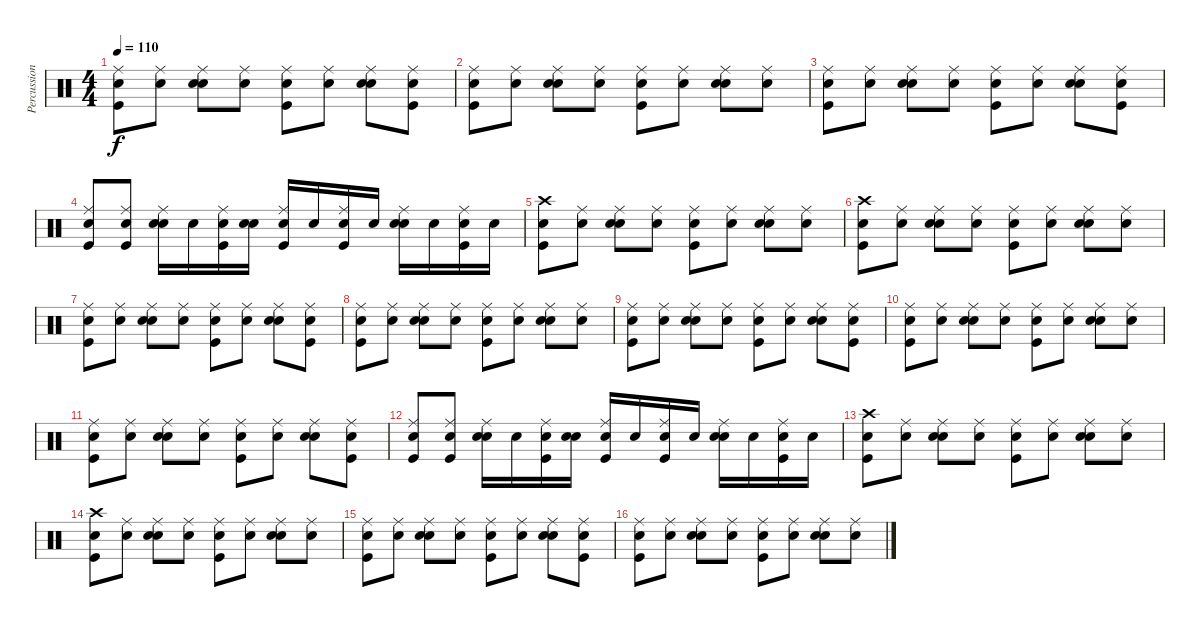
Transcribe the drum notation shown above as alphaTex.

\track ("Percussion" "Percussion") {instrument percussion}
\staff {score}
\articulation defaults
\ts (4 4)
\tempo 110
\clef neutral
\ks c
("Snare (hit)" "Ride (middle)" "Kick (hit)").8{dy f} ("Snare (hit)" "Ride (middle)").8 ("Snare (hit)" "Ride (middle)" "Snare (hit) 2").8 ("Snare (hit)" "Ride (middle)").8 ("Snare (hit)" "Ride (middle)" "Kick (hit)").8 ("Snare (hit)" "Ride (middle)").8 ("Snare (hit)" "Ride (middle)" "Snare (hit) 2").8 ("Snare (hit)" "Ride (middle)" "Kick (hit)").8 |
("Snare (hit)" "Ride (middle)" "Kick (hit)").8 ("Snare (hit)" "Ride (middle)").8 ("Snare (hit)" "Ride (middle)" "Snare (hit) 2").8 ("Snare (hit)" "Ride (middle)").8 ("Snare (hit)" "Ride (middle)" "Kick (hit)").8 ("Snare (hit)" "Ride (middle)").8 ("Snare (hit)" "Ride (middle)" "Snare (hit) 2").8 ("Snare (hit)" "Ride (middle)").8 |
("Snare (hit)" "Ride (middle)" "Kick (hit)").8 ("Snare (hit)" "Ride (middle)").8 ("Snare (hit)" "Ride (middle)" "Snare (hit) 2").8 ("Snare (hit)" "Ride (middle)").8 ("Snare (hit)" "Ride (middle)" "Kick (hit)").8 ("Snare (hit)" "Ride (middle)").8 ("Snare (hit)" "Ride (middle)" "Snare (hit) 2").8 ("Snare (hit)" "Ride (middle)" "Kick (hit)").8 |
("Snare (hit)" "Ride (middle)" "Kick (hit)").8 ("Snare (hit)" "Ride (middle)" "Kick (hit)").8 ("Snare (hit)" "Ride (middle)" "Snare (hit) 2").16 "Snare (hit)".16 ("Snare (hit)" "Ride (middle)" "Kick (hit)").16 ("Snare (hit)" "Snare (hit) 2").16 ("Snare (hit)" "Ride (middle)" "Kick (hit)").16 "Snare (hit)".16 ("Snare (hit)" "Ride (middle)" "Kick (hit)").16 "Snare (hit)".16 ("Snare (hit)" "Ride (middle)" "Snare (hit) 2").16 "Snare (hit)".16 ("Snare (hit)" "Ride (middle)" "Kick (hit)").16 "Snare (hit)".16 |
("Snare (hit)" "Crash high (hit)" "Kick (hit)").8 ("Snare (hit)" "Ride (middle)").8 ("Snare (hit)" "Ride (middle)" "Snare (hit) 2").8 ("Snare (hit)" "Ride (middle)").8 ("Snare (hit)" "Ride (middle)" "Kick (hit)").8 ("Snare (hit)" "Ride (middle)").8 ("Snare (hit)" "Ride (middle)" "Snare (hit) 2").8 ("Snare (hit)" "Ride (middle)").8 |
("Snare (hit)" "Crash high (hit)" "Kick (hit)").8 ("Snare (hit)" "Ride (middle)").8 ("Snare (hit)" "Ride (middle)" "Snare (hit) 2").8 ("Snare (hit)" "Ride (middle)").8 ("Snare (hit)" "Ride (middle)" "Kick (hit)").8 ("Snare (hit)" "Ride (middle)").8 ("Snare (hit)" "Ride (middle)" "Snare (hit) 2").8 ("Snare (hit)" "Ride (middle)").8 |
("Snare (hit)" "Ride (middle)" "Kick (hit)").8 ("Snare (hit)" "Ride (middle)").8 ("Snare (hit)" "Ride (middle)" "Snare (hit) 2").8 ("Snare (hit)" "Ride (middle)").8 ("Snare (hit)" "Ride (middle)" "Kick (hit)").8 ("Snare (hit)" "Ride (middle)").8 ("Snare (hit)" "Ride (middle)" "Snare (hit) 2").8 ("Snare (hit)" "Ride (middle)" "Kick (hit)").8 |
("Snare (hit)" "Ride (middle)" "Kick (hit)").8 ("Snare (hit)" "Ride (middle)").8 ("Snare (hit)" "Ride (middle)" "Snare (hit) 2").8 ("Snare (hit)" "Ride (middle)").8 ("Snare (hit)" "Ride (middle)" "Kick (hit)").8 ("Snare (hit)" "Ride (middle)").8 ("Snare (hit)" "Ride (middle)" "Snare (hit) 2").8 ("Snare (hit)" "Ride (middle)").8 |
("Snare (hit)" "Ride (middle)" "Kick (hit)").8 ("Snare (hit)" "Ride (middle)").8 ("Snare (hit)" "Ride (middle)" "Snare (hit) 2").8 ("Snare (hit)" "Ride (middle)").8 ("Snare (hit)" "Ride (middle)" "Kick (hit)").8 ("Snare (hit)" "Ride (middle)").8 ("Snare (hit)" "Ride (middle)" "Snare (hit) 2").8 ("Snare (hit)" "Ride (middle)" "Kick (hit)").8 |
("Snare (hit)" "Ride (middle)" "Kick (hit)").8 ("Snare (hit)" "Ride (middle)").8 ("Snare (hit)" "Ride (middle)" "Snare (hit) 2").8 ("Snare (hit)" "Ride (middle)").8 ("Snare (hit)" "Ride (middle)" "Kick (hit)").8 ("Snare (hit)" "Ride (middle)").8 ("Snare (hit)" "Ride (middle)" "Snare (hit) 2").8 ("Snare (hit)" "Ride (middle)").8 |
("Snare (hit)" "Ride (middle)" "Kick (hit)").8 ("Snare (hit)" "Ride (middle)").8 ("Snare (hit)" "Ride (middle)" "Snare (hit) 2").8 ("Snare (hit)" "Ride (middle)").8 ("Snare (hit)" "Ride (middle)" "Kick (hit)").8 ("Snare (hit)" "Ride (middle)").8 ("Snare (hit)" "Ride (middle)" "Snare (hit) 2").8 ("Snare (hit)" "Ride (middle)" "Kick (hit)").8 |
("Snare (hit)" "Ride (middle)" "Kick (hit)").8 ("Snare (hit)" "Ride (middle)" "Kick (hit)").8 ("Snare (hit)" "Ride (middle)" "Snare (hit) 2").16 "Snare (hit)".16 ("Snare (hit)" "Ride (middle)" "Kick (hit)").16 ("Snare (hit)" "Snare (hit) 2").16 ("Snare (hit)" "Ride (middle)" "Kick (hit)").16 "Snare (hit)".16 ("Snare (hit)" "Ride (middle)" "Kick (hit)").16 "Snare (hit)".16 ("Snare (hit)" "Ride (middle)" "Snare (hit) 2").16 "Snare (hit)".16 ("Snare (hit)" "Ride (middle)" "Kick (hit)").16 "Snare (hit)".16 |
("Snare (hit)" "Crash high (hit)" "Kick (hit)").8 ("Snare (hit)" "Ride (middle)").8 ("Snare (hit)" "Ride (middle)" "Snare (hit) 2").8 ("Snare (hit)" "Ride (middle)").8 ("Snare (hit)" "Ride (middle)" "Kick (hit)").8 ("Snare (hit)" "Ride (middle)").8 ("Snare (hit)" "Ride (middle)" "Snare (hit) 2").8 ("Snare (hit)" "Ride (middle)").8 |
("Snare (hit)" "Crash high (hit)" "Kick (hit)").8 ("Snare (hit)" "Ride (middle)").8 ("Snare (hit)" "Ride (middle)" "Snare (hit) 2").8 ("Snare (hit)" "Ride (middle)").8 ("Snare (hit)" "Ride (middle)" "Kick (hit)").8 ("Snare (hit)" "Ride (middle)").8 ("Snare (hit)" "Ride (middle)" "Snare (hit) 2").8 ("Snare (hit)" "Ride (middle)").8 |
("Snare (hit)" "Ride (middle)" "Kick (hit)").8 ("Snare (hit)" "Ride (middle)").8 ("Snare (hit)" "Ride (middle)" "Snare (hit) 2").8 ("Snare (hit)" "Ride (middle)").8 ("Snare (hit)" "Ride (middle)" "Kick (hit)").8 ("Snare (hit)" "Ride (middle)").8 ("Snare (hit)" "Ride (middle)" "Snare (hit) 2").8 ("Snare (hit)" "Ride (middle)" "Kick (hit)").8 |
("Snare (hit)" "Ride (middle)" "Kick (hit)").8 ("Snare (hit)" "Ride (middle)").8 ("Snare (hit)" "Ride (middle)" "Snare (hit) 2").8 ("Snare (hit)" "Ride (middle)").8 ("Snare (hit)" "Ride (middle)" "Kick (hit)").8 ("Snare (hit)" "Ride (middle)").8 ("Snare (hit)" "Ride (middle)" "Snare (hit) 2").8 ("Snare (hit)" "Ride (middle)").8
